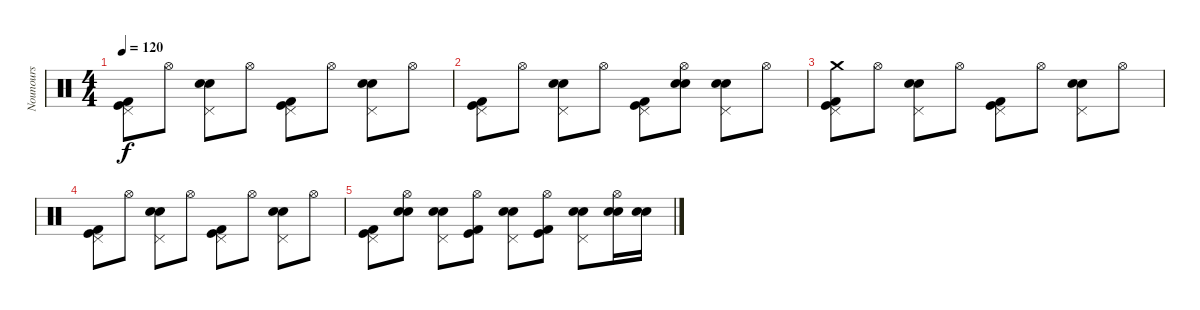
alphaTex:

\track ("Nounours" "Nounours") {instrument percussion}
\staff {score}
\articulation defaults
\ts (4 4)
\tempo 120
\clef neutral
\ks c
("Pedal Hi-Hat (hit)" "Kick (hit) 2" "Kick (hit)").8{dy f} "Hi-Hat (open)".8 ("Pedal Hi-Hat (hit)" "Electric Snare (hit)" "Electric Snare (hit)").8 "Hi-Hat (open)".8 ("Pedal Hi-Hat (hit)" "Kick (hit)" "Kick (hit) 2").8 "Hi-Hat (open)".8 ("Pedal Hi-Hat (hit)" "Electric Snare (hit)" "Electric Snare (hit)").8 "Hi-Hat (open)".8 |
("Pedal Hi-Hat (hit)" "Kick (hit) 2" "Kick (hit)").8 "Hi-Hat (open)".8 ("Pedal Hi-Hat (hit)" "Electric Snare (hit)" "Electric Snare (hit)").8 "Hi-Hat (open)".8 ("Pedal Hi-Hat (hit)" "Kick (hit)" "Kick (hit) 2").8 ("Hi-Hat (open)" "Electric Snare (hit)" "Electric Snare (hit)").8 ("Pedal Hi-Hat (hit)" "Electric Snare (hit)" "Electric Snare (hit)").8 "Hi-Hat (open)".8 |
("Pedal Hi-Hat (hit)" "Crash medium (hit)" "Kick (hit) 2" "Kick (hit)").8 "Hi-Hat (open)".8 ("Pedal Hi-Hat (hit)" "Electric Snare (hit)" "Electric Snare (hit)").8 "Hi-Hat (open)".8 ("Pedal Hi-Hat (hit)" "Kick (hit)" "Kick (hit) 2").8 "Hi-Hat (open)".8 ("Pedal Hi-Hat (hit)" "Electric Snare (hit)" "Electric Snare (hit)").8 "Hi-Hat (open)".8 |
("Pedal Hi-Hat (hit)" "Kick (hit) 2" "Kick (hit)").8 "Hi-Hat (open)".8 ("Pedal Hi-Hat (hit)" "Electric Snare (hit)" "Electric Snare (hit)").8 "Hi-Hat (open)".8 ("Pedal Hi-Hat (hit)" "Kick (hit)" "Kick (hit) 2").8 "Hi-Hat (open)".8 ("Pedal Hi-Hat (hit)" "Electric Snare (hit)" "Electric Snare (hit)").8 "Hi-Hat (open)".8 |
("Pedal Hi-Hat (hit)" "Kick (hit) 2" "Kick (hit)").8 ("Hi-Hat (open)" "Electric Snare (hit)" "Electric Snare (hit)").8 ("Pedal Hi-Hat (hit)" "Electric Snare (hit)" "Electric Snare (hit)").8 ("Hi-Hat (open)" "Kick (hit) 2" "Kick (hit)").8 ("Pedal Hi-Hat (hit)" "Electric Snare (hit)" "Electric Snare (hit)").8 ("Hi-Hat (open)" "Kick (hit) 2" "Kick (hit)").8 ("Pedal Hi-Hat (hit)" "Electric Snare (hit)" "Electric Snare (hit)").8 ("Hi-Hat (open)" "Electric Snare (hit)" "Electric Snare (hit)").16 ("Electric Snare (hit)" "Electric Snare (hit)").16
